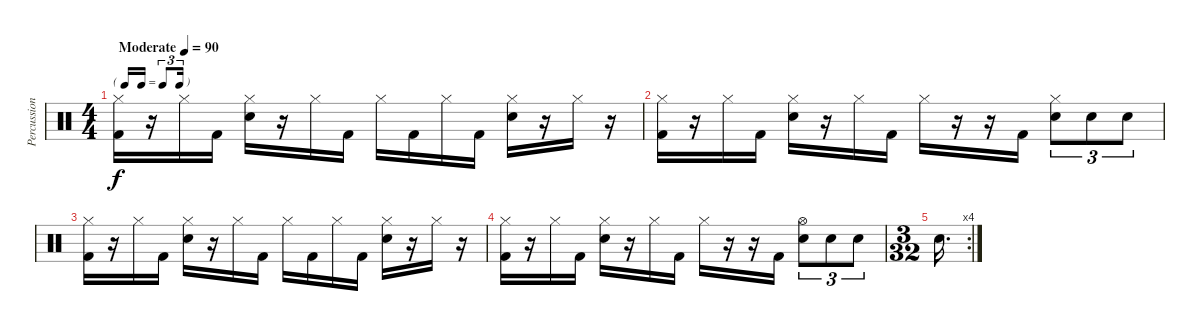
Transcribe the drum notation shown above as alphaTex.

\track ("Percussion" "Percussion") {instrument percussion}
\staff {score}
\articulation defaults
\ts (4 4)
\tf triplet16th
\tempo (90 "Moderate")
\clef neutral
\ks c
("Hi-Hat (closed)" "Kick (hit) 2").16{dy f} r.16 "Hi-Hat (closed)".16 "Kick (hit) 2".16 ("Hi-Hat (closed)" "Electric Snare (hit)").16 r.16 "Hi-Hat (closed)".16 "Kick (hit) 2".16 "Hi-Hat (closed)".16 "Kick (hit) 2".16 "Hi-Hat (closed)".16 "Kick (hit) 2".16 ("Hi-Hat (closed)" "Electric Snare (hit)").16 r.16 "Hi-Hat (closed)".16 r.16 |
("Hi-Hat (closed)" "Kick (hit) 2").16 r.16 "Hi-Hat (closed)".16 "Kick (hit) 2".16 ("Hi-Hat (closed)" "Electric Snare (hit)").16 r.16 "Hi-Hat (closed)".16 "Kick (hit) 2".16 "Hi-Hat (closed)".16 r.16 r.16 "Kick (hit) 2".16 ("Hi-Hat (closed)" "Electric Snare (hit)").8{tu (3 2)} "Electric Snare (hit)".8{tu (3 2)} "Electric Snare (hit)".8{tu (3 2)} |
("Hi-Hat (closed)" "Kick (hit) 2").16 r.16 "Hi-Hat (closed)".16 "Kick (hit) 2".16 ("Hi-Hat (closed)" "Electric Snare (hit)").16 r.16 "Hi-Hat (closed)".16 "Kick (hit) 2".16 "Hi-Hat (closed)".16 "Kick (hit) 2".16 "Hi-Hat (closed)".16 "Kick (hit) 2".16 ("Hi-Hat (closed)" "Electric Snare (hit)").16 r.16 "Hi-Hat (closed)".16 r.16 |
("Hi-Hat (closed)" "Kick (hit) 2").16 r.16 "Hi-Hat (closed)".16 "Kick (hit) 2".16 ("Hi-Hat (closed)" "Electric Snare (hit)").16 r.16 "Hi-Hat (closed)".16 "Kick (hit) 2".16 "Hi-Hat (closed)".16 r.16 r.16 "Kick (hit) 2".16 ("Hi-Hat (open)" "Electric Snare (hit)").8{tu (3 2)} "Electric Snare (hit)".8{tu (3 2)} "Electric Snare (hit)".8{tu (3 2)} |
\rc 4
\ts (3 32)
"Electric Snare (hit)".16{d}
